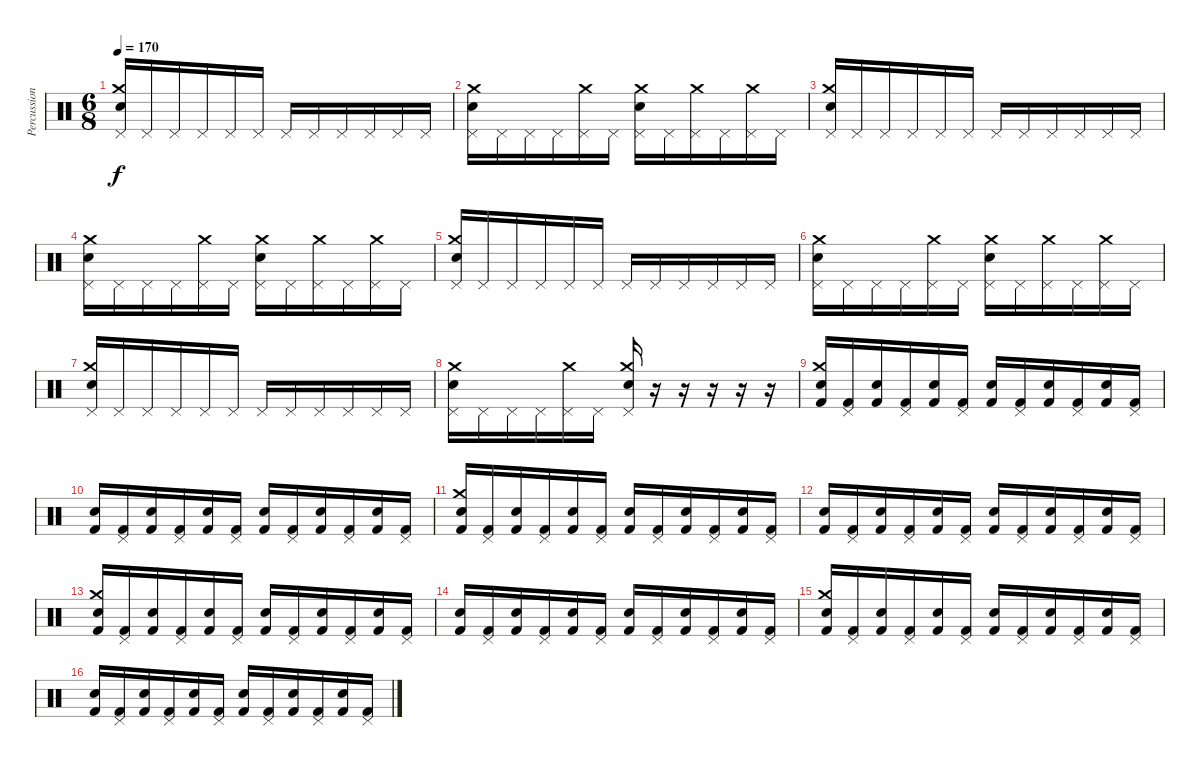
\track ("Percussions" "Percussion") {instrument percussion}
\staff {score}
\articulation defaults
\ts (6 8)
\tempo 170
\clef neutral
\ks c
("Snare (hit) 2" "Crash medium (hit)" "Pedal Hi-Hat (hit)").16{dy f} "Pedal Hi-Hat (hit)".16 "Pedal Hi-Hat (hit)".16 "Pedal Hi-Hat (hit)".16 "Pedal Hi-Hat (hit)".16 "Pedal Hi-Hat (hit)".16 "Pedal Hi-Hat (hit)".16 "Pedal Hi-Hat (hit)".16 "Pedal Hi-Hat (hit)".16 "Pedal Hi-Hat (hit)".16 "Pedal Hi-Hat (hit)".16 "Pedal Hi-Hat (hit)".16 |
("Snare (hit) 2" "Crash medium (hit)" "Pedal Hi-Hat (hit)").16 "Pedal Hi-Hat (hit)".16 "Pedal Hi-Hat (hit)".16 "Pedal Hi-Hat (hit)".16 ("Crash medium (hit)" "Pedal Hi-Hat (hit)").16 "Pedal Hi-Hat (hit)".16 ("Snare (hit) 2" "Crash medium (hit)" "Pedal Hi-Hat (hit)").16 "Pedal Hi-Hat (hit)".16 ("Crash medium (hit)" "Pedal Hi-Hat (hit)").16 "Pedal Hi-Hat (hit)".16 ("Crash medium (hit)" "Pedal Hi-Hat (hit)").16 "Pedal Hi-Hat (hit)".16 |
("Snare (hit) 2" "Crash medium (hit)" "Pedal Hi-Hat (hit)").16 "Pedal Hi-Hat (hit)".16 "Pedal Hi-Hat (hit)".16 "Pedal Hi-Hat (hit)".16 "Pedal Hi-Hat (hit)".16 "Pedal Hi-Hat (hit)".16 "Pedal Hi-Hat (hit)".16 "Pedal Hi-Hat (hit)".16 "Pedal Hi-Hat (hit)".16 "Pedal Hi-Hat (hit)".16 "Pedal Hi-Hat (hit)".16 "Pedal Hi-Hat (hit)".16 |
("Snare (hit) 2" "Crash medium (hit)" "Pedal Hi-Hat (hit)").16 "Pedal Hi-Hat (hit)".16 "Pedal Hi-Hat (hit)".16 "Pedal Hi-Hat (hit)".16 ("Crash medium (hit)" "Pedal Hi-Hat (hit)").16 "Pedal Hi-Hat (hit)".16 ("Snare (hit) 2" "Crash medium (hit)" "Pedal Hi-Hat (hit)").16 "Pedal Hi-Hat (hit)".16 ("Crash medium (hit)" "Pedal Hi-Hat (hit)").16 "Pedal Hi-Hat (hit)".16 ("Crash medium (hit)" "Pedal Hi-Hat (hit)").16 "Pedal Hi-Hat (hit)".16 |
("Snare (hit) 2" "Crash medium (hit)" "Pedal Hi-Hat (hit)").16 "Pedal Hi-Hat (hit)".16 "Pedal Hi-Hat (hit)".16 "Pedal Hi-Hat (hit)".16 "Pedal Hi-Hat (hit)".16 "Pedal Hi-Hat (hit)".16 "Pedal Hi-Hat (hit)".16 "Pedal Hi-Hat (hit)".16 "Pedal Hi-Hat (hit)".16 "Pedal Hi-Hat (hit)".16 "Pedal Hi-Hat (hit)".16 "Pedal Hi-Hat (hit)".16 |
("Snare (hit) 2" "Crash medium (hit)" "Pedal Hi-Hat (hit)").16 "Pedal Hi-Hat (hit)".16 "Pedal Hi-Hat (hit)".16 "Pedal Hi-Hat (hit)".16 ("Crash medium (hit)" "Pedal Hi-Hat (hit)").16 "Pedal Hi-Hat (hit)".16 ("Snare (hit) 2" "Crash medium (hit)" "Pedal Hi-Hat (hit)").16 "Pedal Hi-Hat (hit)".16 ("Crash medium (hit)" "Pedal Hi-Hat (hit)").16 "Pedal Hi-Hat (hit)".16 ("Crash medium (hit)" "Pedal Hi-Hat (hit)").16 "Pedal Hi-Hat (hit)".16 |
("Snare (hit) 2" "Crash medium (hit)" "Pedal Hi-Hat (hit)").16 "Pedal Hi-Hat (hit)".16 "Pedal Hi-Hat (hit)".16 "Pedal Hi-Hat (hit)".16 "Pedal Hi-Hat (hit)".16 "Pedal Hi-Hat (hit)".16 "Pedal Hi-Hat (hit)".16 "Pedal Hi-Hat (hit)".16 "Pedal Hi-Hat (hit)".16 "Pedal Hi-Hat (hit)".16 "Pedal Hi-Hat (hit)".16 "Pedal Hi-Hat (hit)".16 |
("Snare (hit) 2" "Crash medium (hit)" "Pedal Hi-Hat (hit)").16 "Pedal Hi-Hat (hit)".16 "Pedal Hi-Hat (hit)".16 "Pedal Hi-Hat (hit)".16 ("Crash medium (hit)" "Pedal Hi-Hat (hit)").16 "Pedal Hi-Hat (hit)".16 ("Snare (hit) 2" "Crash medium (hit)" "Pedal Hi-Hat (hit)").16 r.16 r.16 r.16 r.16 r.16 |
("Crash medium (hit)" "Snare (hit) 2" "Kick (hit) 2").16 ("Pedal Hi-Hat (hit)" "Kick (hit) 2").16 ("Snare (hit) 2" "Kick (hit) 2").16 ("Pedal Hi-Hat (hit)" "Kick (hit) 2").16 ("Snare (hit) 2" "Kick (hit) 2").16 ("Pedal Hi-Hat (hit)" "Kick (hit) 2").16 ("Snare (hit) 2" "Kick (hit) 2").16 ("Pedal Hi-Hat (hit)" "Kick (hit) 2").16 ("Snare (hit) 2" "Kick (hit) 2").16 ("Pedal Hi-Hat (hit)" "Kick (hit) 2").16 ("Snare (hit) 2" "Kick (hit) 2").16 ("Pedal Hi-Hat (hit)" "Kick (hit) 2").16 |
("Snare (hit) 2" "Kick (hit) 2").16 ("Pedal Hi-Hat (hit)" "Kick (hit) 2").16 ("Snare (hit) 2" "Kick (hit) 2").16 ("Pedal Hi-Hat (hit)" "Kick (hit) 2").16 ("Snare (hit) 2" "Kick (hit) 2").16 ("Pedal Hi-Hat (hit)" "Kick (hit) 2").16 ("Snare (hit) 2" "Kick (hit) 2").16 ("Pedal Hi-Hat (hit)" "Kick (hit) 2").16 ("Snare (hit) 2" "Kick (hit) 2").16 ("Pedal Hi-Hat (hit)" "Kick (hit) 2").16 ("Snare (hit) 2" "Kick (hit) 2").16 ("Pedal Hi-Hat (hit)" "Kick (hit) 2").16 |
("Crash medium (hit)" "Snare (hit) 2" "Kick (hit) 2").16 ("Pedal Hi-Hat (hit)" "Kick (hit) 2").16 ("Snare (hit) 2" "Kick (hit) 2").16 ("Pedal Hi-Hat (hit)" "Kick (hit) 2").16 ("Snare (hit) 2" "Kick (hit) 2").16 ("Pedal Hi-Hat (hit)" "Kick (hit) 2").16 ("Snare (hit) 2" "Kick (hit) 2").16 ("Pedal Hi-Hat (hit)" "Kick (hit) 2").16 ("Snare (hit) 2" "Kick (hit) 2").16 ("Pedal Hi-Hat (hit)" "Kick (hit) 2").16 ("Snare (hit) 2" "Kick (hit) 2").16 ("Pedal Hi-Hat (hit)" "Kick (hit) 2").16 |
("Snare (hit) 2" "Kick (hit) 2").16 ("Pedal Hi-Hat (hit)" "Kick (hit) 2").16 ("Snare (hit) 2" "Kick (hit) 2").16 ("Pedal Hi-Hat (hit)" "Kick (hit) 2").16 ("Snare (hit) 2" "Kick (hit) 2").16 ("Pedal Hi-Hat (hit)" "Kick (hit) 2").16 ("Snare (hit) 2" "Kick (hit) 2").16 ("Pedal Hi-Hat (hit)" "Kick (hit) 2").16 ("Snare (hit) 2" "Kick (hit) 2").16 ("Pedal Hi-Hat (hit)" "Kick (hit) 2").16 ("Snare (hit) 2" "Kick (hit) 2").16 ("Pedal Hi-Hat (hit)" "Kick (hit) 2").16 |
("Crash medium (hit)" "Snare (hit) 2" "Kick (hit) 2").16 ("Pedal Hi-Hat (hit)" "Kick (hit) 2").16 ("Snare (hit) 2" "Kick (hit) 2").16 ("Pedal Hi-Hat (hit)" "Kick (hit) 2").16 ("Snare (hit) 2" "Kick (hit) 2").16 ("Pedal Hi-Hat (hit)" "Kick (hit) 2").16 ("Snare (hit) 2" "Kick (hit) 2").16 ("Pedal Hi-Hat (hit)" "Kick (hit) 2").16 ("Snare (hit) 2" "Kick (hit) 2").16 ("Pedal Hi-Hat (hit)" "Kick (hit) 2").16 ("Snare (hit) 2" "Kick (hit) 2").16 ("Pedal Hi-Hat (hit)" "Kick (hit) 2").16 |
("Snare (hit) 2" "Kick (hit) 2").16 ("Pedal Hi-Hat (hit)" "Kick (hit) 2").16 ("Snare (hit) 2" "Kick (hit) 2").16 ("Pedal Hi-Hat (hit)" "Kick (hit) 2").16 ("Snare (hit) 2" "Kick (hit) 2").16 ("Pedal Hi-Hat (hit)" "Kick (hit) 2").16 ("Snare (hit) 2" "Kick (hit) 2").16 ("Pedal Hi-Hat (hit)" "Kick (hit) 2").16 ("Snare (hit) 2" "Kick (hit) 2").16 ("Pedal Hi-Hat (hit)" "Kick (hit) 2").16 ("Snare (hit) 2" "Kick (hit) 2").16 ("Pedal Hi-Hat (hit)" "Kick (hit) 2").16 |
("Crash medium (hit)" "Snare (hit) 2" "Kick (hit) 2").16 ("Pedal Hi-Hat (hit)" "Kick (hit) 2").16 ("Snare (hit) 2" "Kick (hit) 2").16 ("Pedal Hi-Hat (hit)" "Kick (hit) 2").16 ("Snare (hit) 2" "Kick (hit) 2").16 ("Pedal Hi-Hat (hit)" "Kick (hit) 2").16 ("Snare (hit) 2" "Kick (hit) 2").16 ("Pedal Hi-Hat (hit)" "Kick (hit) 2").16 ("Snare (hit) 2" "Kick (hit) 2").16 ("Pedal Hi-Hat (hit)" "Kick (hit) 2").16 ("Snare (hit) 2" "Kick (hit) 2").16 ("Pedal Hi-Hat (hit)" "Kick (hit) 2").16 |
("Snare (hit) 2" "Kick (hit) 2").16 ("Pedal Hi-Hat (hit)" "Kick (hit) 2").16 ("Snare (hit) 2" "Kick (hit) 2").16 ("Pedal Hi-Hat (hit)" "Kick (hit) 2").16 ("Snare (hit) 2" "Kick (hit) 2").16 ("Pedal Hi-Hat (hit)" "Kick (hit) 2").16 ("Snare (hit) 2" "Kick (hit) 2").16 ("Pedal Hi-Hat (hit)" "Kick (hit) 2").16 ("Snare (hit) 2" "Kick (hit) 2").16 ("Pedal Hi-Hat (hit)" "Kick (hit) 2").16 ("Snare (hit) 2" "Kick (hit) 2").16 ("Pedal Hi-Hat (hit)" "Kick (hit) 2").16
